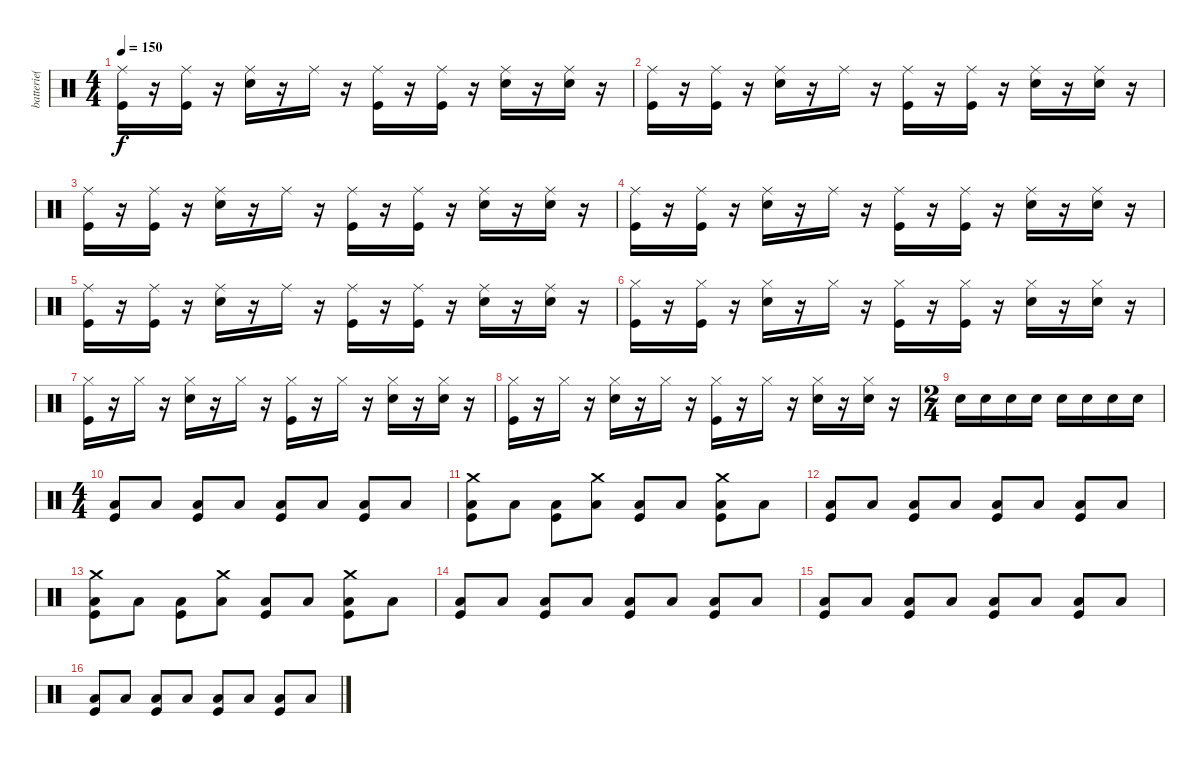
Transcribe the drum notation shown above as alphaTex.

\track ("batterie(  Mark Cain )" "batterie( ") {instrument percussion}
\staff {score}
\articulation defaults
\ts (4 4)
\tempo 150
\clef neutral
\ks c
("Ride (middle)" "Kick (hit)").16{dy f} r.16 ("Ride (middle)" "Kick (hit)").16 r.16 ("Ride (middle)" "Snare (hit) 2").16 r.16 "Ride (middle)".16 r.16 ("Ride (middle)" "Kick (hit)").16 r.16 ("Ride (middle)" "Kick (hit)").16 r.16 ("Ride (middle)" "Snare (hit) 2").16 r.16 ("Ride (middle)" "Snare (hit) 2").16 r.16 |
("Ride (middle)" "Kick (hit)").16 r.16 ("Ride (middle)" "Kick (hit)").16 r.16 ("Ride (middle)" "Snare (hit) 2").16 r.16 "Ride (middle)".16 r.16 ("Ride (middle)" "Kick (hit)").16 r.16 ("Ride (middle)" "Kick (hit)").16 r.16 ("Ride (middle)" "Snare (hit) 2").16 r.16 ("Ride (middle)" "Snare (hit) 2").16 r.16 |
("Ride (middle)" "Kick (hit)").16 r.16 ("Ride (middle)" "Kick (hit)").16 r.16 ("Ride (middle)" "Snare (hit) 2").16 r.16 "Ride (middle)".16 r.16 ("Ride (middle)" "Kick (hit)").16 r.16 ("Ride (middle)" "Kick (hit)").16 r.16 ("Ride (middle)" "Snare (hit) 2").16 r.16 ("Ride (middle)" "Snare (hit) 2").16 r.16 |
("Ride (middle)" "Kick (hit)").16 r.16 ("Ride (middle)" "Kick (hit)").16 r.16 ("Ride (middle)" "Snare (hit) 2").16 r.16 "Ride (middle)".16 r.16 ("Ride (middle)" "Kick (hit)").16 r.16 ("Ride (middle)" "Kick (hit)").16 r.16 ("Ride (middle)" "Snare (hit) 2").16 r.16 ("Ride (middle)" "Snare (hit) 2").16 r.16 |
("Ride (middle)" "Kick (hit)").16 r.16 ("Ride (middle)" "Kick (hit)").16 r.16 ("Ride (middle)" "Snare (hit) 2").16 r.16 "Ride (middle)".16 r.16 ("Ride (middle)" "Kick (hit)").16 r.16 ("Ride (middle)" "Kick (hit)").16 r.16 ("Ride (middle)" "Snare (hit) 2").16 r.16 ("Ride (middle)" "Snare (hit) 2").16 r.16 |
("Hi-Hat (closed)" "Kick (hit)").16 r.16 ("Hi-Hat (closed)" "Kick (hit)").16 r.16 ("Hi-Hat (closed)" "Snare (hit) 2").16 r.16 "Hi-Hat (closed)".16 r.16 ("Hi-Hat (closed)" "Kick (hit)").16 r.16 ("Hi-Hat (closed)" "Kick (hit)").16 r.16 ("Hi-Hat (closed)" "Snare (hit) 2").16 r.16 ("Hi-Hat (closed)" "Snare (hit) 2").16 r.16 |
("Hi-Hat (closed)" "Kick (hit)").16 r.16 "Hi-Hat (closed)".16 r.16 ("Hi-Hat (closed)" "Snare (hit) 2").16 r.16 "Hi-Hat (closed)".16 r.16 ("Hi-Hat (closed)" "Kick (hit)").16 r.16 "Hi-Hat (closed)".16 r.16 ("Hi-Hat (closed)" "Snare (hit) 2").16 r.16 ("Hi-Hat (closed)" "Snare (hit) 2").16 r.16 |
("Hi-Hat (closed)" "Kick (hit)").16 r.16 "Hi-Hat (closed)".16 r.16 ("Hi-Hat (closed)" "Snare (hit) 2").16 r.16 "Hi-Hat (closed)".16 r.16 ("Hi-Hat (closed)" "Kick (hit)").16 r.16 "Hi-Hat (closed)".16 r.16 ("Hi-Hat (closed)" "Snare (hit) 2").16 r.16 ("Hi-Hat (closed)" "Snare (hit) 2").16 r.16 |
\ts (2 4)
"Snare (hit) 2".16 "Snare (hit) 2".16 "Snare (hit) 2".16 "Snare (hit) 2".16 "Snare (hit) 2".16 "Snare (hit) 2".16 "Snare (hit) 2".16 "Snare (hit) 2".16 |
\ts (4 4)
("Low Floor Tom (hit)" "Kick (hit)").8 "Low Floor Tom (hit)".8 ("Low Floor Tom (hit)" "Kick (hit)").8 "Low Floor Tom (hit)".8 ("Low Floor Tom (hit)" "Kick (hit)").8 "Low Floor Tom (hit)".8 ("Low Floor Tom (hit)" "Kick (hit)").8 "Low Floor Tom (hit)".8 |
("Crash medium (hit)" "Low Floor Tom (hit)" "Kick (hit)").8 "Low Floor Tom (hit)".8 ("Low Floor Tom (hit)" "Kick (hit)").8 ("Crash medium (hit)" "Low Floor Tom (hit)").8 ("Low Floor Tom (hit)" "Kick (hit)").8 "Low Floor Tom (hit)".8 ("Crash medium (hit)" "Low Floor Tom (hit)" "Kick (hit)").8 "Low Floor Tom (hit)".8 |
("Low Floor Tom (hit)" "Kick (hit)").8 "Low Floor Tom (hit)".8 ("Low Floor Tom (hit)" "Kick (hit)").8 "Low Floor Tom (hit)".8 ("Low Floor Tom (hit)" "Kick (hit)").8 "Low Floor Tom (hit)".8 ("Low Floor Tom (hit)" "Kick (hit)").8 "Low Floor Tom (hit)".8 |
("Crash medium (hit)" "Low Floor Tom (hit)" "Kick (hit)").8 "Low Floor Tom (hit)".8 ("Low Floor Tom (hit)" "Kick (hit)").8 ("Crash medium (hit)" "Low Floor Tom (hit)").8 ("Low Floor Tom (hit)" "Kick (hit)").8 "Low Floor Tom (hit)".8 ("Crash medium (hit)" "Low Floor Tom (hit)" "Kick (hit)").8 "Low Floor Tom (hit)".8 |
("Low Floor Tom (hit)" "Kick (hit)").8 "Low Floor Tom (hit)".8 ("Low Floor Tom (hit)" "Kick (hit)").8 "Low Floor Tom (hit)".8 ("Low Floor Tom (hit)" "Kick (hit)").8 "Low Floor Tom (hit)".8 ("Low Floor Tom (hit)" "Kick (hit)").8 "Low Floor Tom (hit)".8 |
("Low Floor Tom (hit)" "Kick (hit)").8 "Low Floor Tom (hit)".8 ("Low Floor Tom (hit)" "Kick (hit)").8 "Low Floor Tom (hit)".8 ("Low Floor Tom (hit)" "Kick (hit)").8 "Low Floor Tom (hit)".8 ("Low Floor Tom (hit)" "Kick (hit)").8 "Low Floor Tom (hit)".8 |
("Low Floor Tom (hit)" "Kick (hit)").8 "Low Floor Tom (hit)".8 ("Low Floor Tom (hit)" "Kick (hit)").8 "Low Floor Tom (hit)".8 ("Low Floor Tom (hit)" "Kick (hit)").8 "Low Floor Tom (hit)".8 ("Low Floor Tom (hit)" "Kick (hit)").8 "Low Floor Tom (hit)".8
